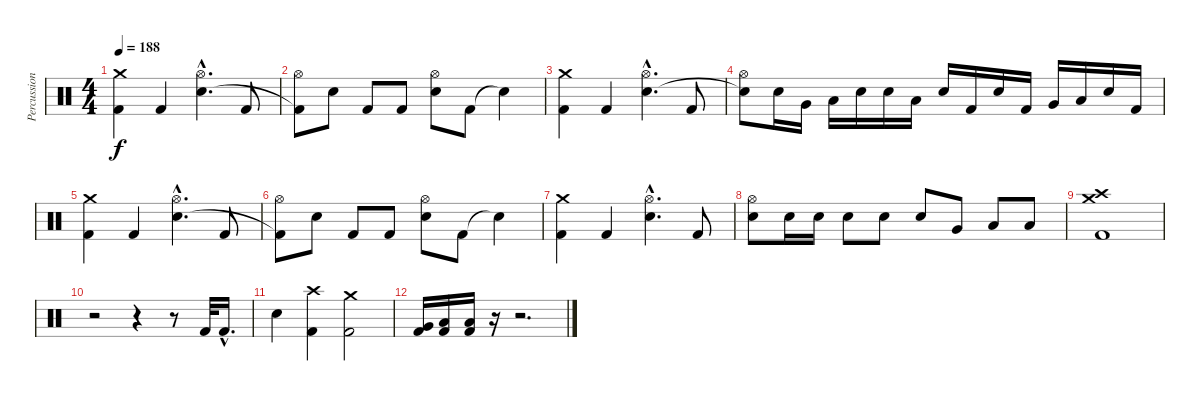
\track ("Percussion" "Percussion") {instrument percussion}
\staff {score}
\articulation defaults
\ts (4 4)
\tempo 188
\clef neutral
\ks c
("Crash medium (hit)" "Kick (hit) 2").4{dy f} "Kick (hit) 2".4 ("Hi-Hat (open)"{hac} "Electric Snare (hit)"{hac}).4{d} "Kick (hit) 2".8 |
("Hi-Hat (open)" "Kick (hit) 2"{t}).8 "Electric Snare (hit)".8 "Kick (hit) 2".8 "Kick (hit) 2".8 ("Hi-Hat (open)" "Electric Snare (hit)").8 "Kick (hit) 2".8 "Snare (hit)"{t}.4 |
("Crash medium (hit)" "Kick (hit) 2").4 "Kick (hit) 2".4 ("Hi-Hat (open)"{hac} "Electric Snare (hit)"{hac}).4{d} "Kick (hit) 2".8 |
("Hi-Hat (open)" "Snare (hit)"{t}).8 "Electric Snare (hit)".16 "Very Low Tom (hit)".16 "Low Floor Tom (hit)".16 "Electric Snare (hit)".16 "Electric Snare (hit)".16 "Low Floor Tom (hit)".16 "Electric Snare (hit)".16 "Kick (hit) 2".16 "Electric Snare (hit)".16 "Kick (hit) 2".16 "Very Low Tom (hit)".16 "Low Floor Tom (hit)".16 "Electric Snare (hit)".16 "Kick (hit) 2".16 |
("Crash medium (hit)" "Kick (hit) 2").4 "Kick (hit) 2".4 ("Hi-Hat (open)"{hac} "Electric Snare (hit)"{hac}).4{d} "Kick (hit) 2".8 |
("Hi-Hat (open)" "Kick (hit) 2"{t}).8 "Electric Snare (hit)".8 "Kick (hit) 2".8 "Kick (hit) 2".8 ("Hi-Hat (open)" "Electric Snare (hit)").8 "Kick (hit) 2".8 "Snare (hit)"{t}.4 |
("Crash medium (hit)" "Kick (hit) 2").4 "Kick (hit) 2".4 ("Hi-Hat (open)"{hac} "Electric Snare (hit)"{hac}).4{d} "Kick (hit) 2".8 |
("Hi-Hat (open)" "Electric Snare (hit)").8 "Electric Snare (hit)".16 "Electric Snare (hit)".16 "Electric Snare (hit)".8 "Electric Snare (hit)".8 "Electric Snare (hit)".8 "Very Low Tom (hit)".8 "Low Floor Tom (hit)".8 "Low Floor Tom (hit)".8 |
("Crash medium (hit)" "Crash high (hit)" "Kick (hit) 2").1 |
r.2 r.4 r.8 "Kick (hit) 2".32 "Kick (hit) 2"{hac}.16{d} |
"Electric Snare (hit)".4 ("Crash high (hit)" "Kick (hit) 2").4 ("Crash medium (hit)" "Kick (hit) 2").2 |
("Very Low Tom (hit)" "Kick (hit) 2").16 ("Low Floor Tom (hit)" "Kick (hit) 2").16 ("Low Floor Tom (hit)" "Kick (hit) 2").16 r.16 r.2{d}
